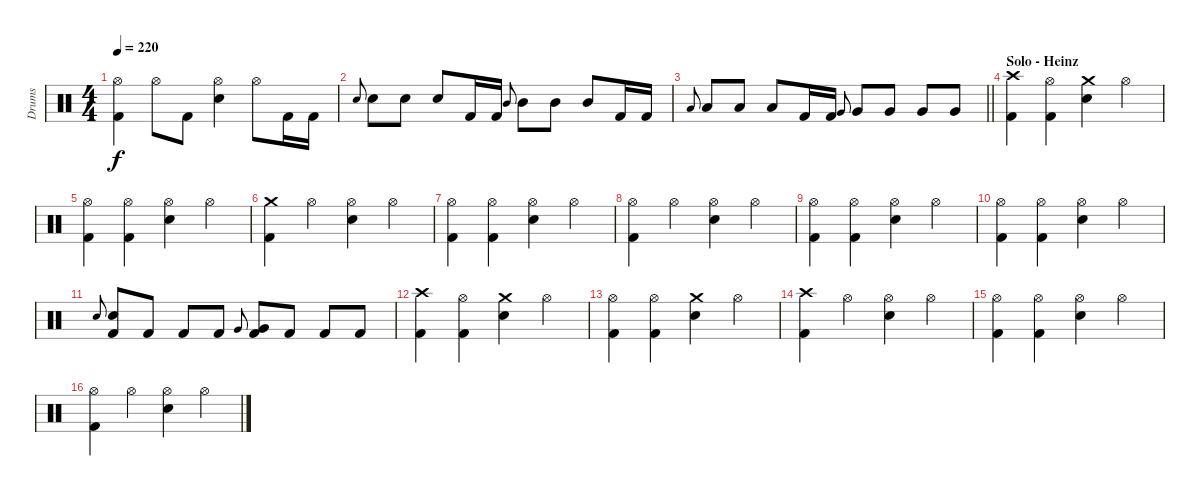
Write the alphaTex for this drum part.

\track ("Drums" "Drums") {instrument percussion}
\staff {score}
\articulation defaults
\ts (4 4)
\tempo 220
\clef neutral
\ks c
("Hi-Hat (open)" "Kick (hit) 2").4{dy f} "Hi-Hat (open)".8 "Kick (hit) 2".8 ("Electric Snare (hit)" "Hi-Hat (open)").4 "Hi-Hat (open)".8 "Kick (hit) 2".16 "Kick (hit) 2".16 |
"Electric Snare (hit)".8{gr onbeat} "Electric Snare (hit)".8 "Electric Snare (hit)".8 "Electric Snare (hit)".8 "Kick (hit) 2".16 "Kick (hit) 2".16 "Mid Tom (hit)".8{gr onbeat} "Mid Tom (hit)".8 "Mid Tom (hit)".8 "Mid Tom (hit)".8 "Kick (hit) 2".16 "Kick (hit) 2".16 |
\barLineRight lightlight "Low Tom (hit)".8{gr onbeat} "Low Tom (hit)".8 "Low Tom (hit)".8 "Low Tom (hit)".8 "Kick (hit) 2".16 "Kick (hit) 2".16 "Very Low Tom (hit)".8{gr onbeat} "Very Low Tom (hit)".8 "Very Low Tom (hit)".8 "Very Low Tom (hit)".8 "Very Low Tom (hit)".8
|
\section ("" "Solo - Heinz")
("Kick (hit) 2" "Crash high (hit)").4 ("Hi-Hat (open)" "Kick (hit) 2").4 ("Electric Snare (hit)" "Crash medium (hit)").4 "Hi-Hat (open)".4 |
("Kick (hit) 2" "Hi-Hat (open)").4 ("Kick (hit) 2" "Hi-Hat (open)").4 ("Electric Snare (hit)" "Hi-Hat (open)").4 "Hi-Hat (open)".4 |
("Crash medium (hit)" "Kick (hit) 2").4 "Hi-Hat (open)".4 ("Hi-Hat (open)" "Electric Snare (hit)").4 "Hi-Hat (open)".4 |
("Kick (hit) 2" "Hi-Hat (open)").4 ("Hi-Hat (open)" "Kick (hit) 2").4 ("Hi-Hat (open)" "Electric Snare (hit)").4 "Hi-Hat (open)".4 |
("Hi-Hat (open)" "Kick (hit) 2").4 "Hi-Hat (open)".4 ("Hi-Hat (open)" "Electric Snare (hit)").4 "Hi-Hat (open)".4 |
("Kick (hit) 2" "Hi-Hat (open)").4 ("Hi-Hat (open)" "Kick (hit) 2").4 ("Hi-Hat (open)" "Electric Snare (hit)").4 "Hi-Hat (open)".4 |
("Kick (hit) 2" "Hi-Hat (open)").4 ("Hi-Hat (open)" "Kick (hit) 2").4 ("Hi-Hat (open)" "Electric Snare (hit)").4 "Hi-Hat (open)".4 |
"Electric Snare (hit)".8{gr onbeat} ("Kick (hit) 2" "Electric Snare (hit)").8 "Kick (hit) 2".8 "Kick (hit) 2".8 "Kick (hit) 2".8 "Very Low Tom (hit)".8{gr onbeat} ("Kick (hit) 2" "Very Low Tom (hit)").8 "Kick (hit) 2".8 "Kick (hit) 2".8 "Kick (hit) 2".8 |
("Kick (hit) 2" "Crash high (hit)").4 ("Hi-Hat (open)" "Kick (hit) 2").4 ("Electric Snare (hit)" "Crash medium (hit)").4 "Hi-Hat (open)".4 |
("Kick (hit) 2" "Hi-Hat (open)").4 ("Kick (hit) 2" "Hi-Hat (open)").4 ("Electric Snare (hit)" "Crash medium (hit)").4 "Hi-Hat (open)".4 |
("Crash high (hit)" "Kick (hit) 2").4 "Hi-Hat (open)".4 ("Hi-Hat (open)" "Electric Snare (hit)").4 "Hi-Hat (open)".4 |
("Kick (hit) 2" "Hi-Hat (open)").4 ("Hi-Hat (open)" "Kick (hit) 2").4 ("Hi-Hat (open)" "Electric Snare (hit)").4 "Hi-Hat (open)".4 |
("Hi-Hat (open)" "Kick (hit) 2").4 "Hi-Hat (open)".4 ("Hi-Hat (open)" "Electric Snare (hit)").4 "Hi-Hat (open)".4
